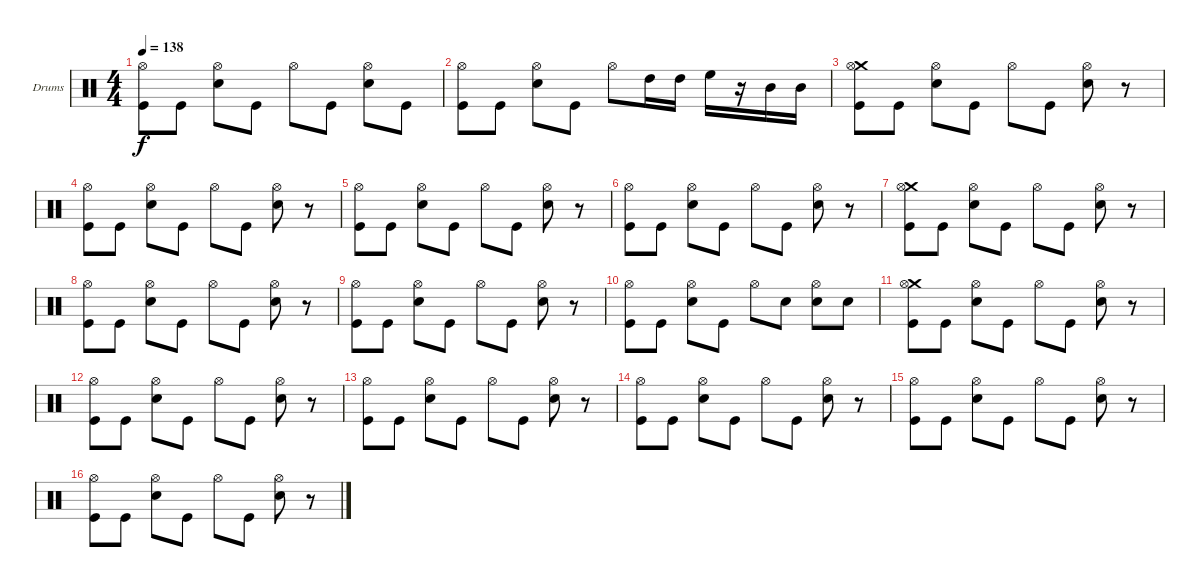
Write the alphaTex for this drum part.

\bracketExtendMode groupsimilarinstruments
\firstSystemTrackNameOrientation horizontal
\otherSystemsTrackNameOrientation horizontal
\track ("Drumkit" "Drums") {instrument percussion}
\staff {score}
\articulation defaults
\ts (4 4)
\tempo 138
\clef neutral
\ks c
("Hi-Hat (open)" "Kick (hit)").8{dy f} "Kick (hit)".8 ("Snare (hit) 2" "Hi-Hat (open)").8 "Kick (hit)".8 "Hi-Hat (open)".8 "Kick (hit)".8 ("Snare (hit) 2" "Hi-Hat (open)").8 "Kick (hit)".8 |
("Hi-Hat (open)" "Kick (hit)").8 "Kick (hit)".8 ("Snare (hit) 2" "Hi-Hat (open)").8 "Kick (hit)".8 "Hi-Hat (open)".8 "High Tom (hit)".16 "High Tom (hit)".16 "High Floor Tom (hit)".16 r.16 "Mid Tom (hit)".16 "Mid Tom (hit)".16 |
("Crash medium (hit)" "Hi-Hat (open)" "Kick (hit)").8 "Kick (hit)".8 ("Snare (hit) 2" "Hi-Hat (open)").8 "Kick (hit)".8 "Hi-Hat (open)".8 "Kick (hit)".8 ("Snare (hit) 2" "Hi-Hat (open)").8 r.8 |
("Hi-Hat (open)" "Kick (hit)").8 "Kick (hit)".8 ("Snare (hit) 2" "Hi-Hat (open)").8 "Kick (hit)".8 "Hi-Hat (open)".8 "Kick (hit)".8 ("Snare (hit) 2" "Hi-Hat (open)").8 r.8 |
("Hi-Hat (open)" "Kick (hit)").8 "Kick (hit)".8 ("Snare (hit) 2" "Hi-Hat (open)").8 "Kick (hit)".8 "Hi-Hat (open)".8 "Kick (hit)".8 ("Snare (hit) 2" "Hi-Hat (open)").8 r.8 |
("Hi-Hat (open)" "Kick (hit)").8 "Kick (hit)".8 ("Snare (hit) 2" "Hi-Hat (open)").8 "Kick (hit)".8 "Hi-Hat (open)".8 "Kick (hit)".8 ("Snare (hit) 2" "Hi-Hat (open)").8 r.8 |
("Crash medium (hit)" "Hi-Hat (open)" "Kick (hit)").8 "Kick (hit)".8 ("Snare (hit) 2" "Hi-Hat (open)").8 "Kick (hit)".8 "Hi-Hat (open)".8 "Kick (hit)".8 ("Snare (hit) 2" "Hi-Hat (open)").8 r.8 |
("Hi-Hat (open)" "Kick (hit)").8 "Kick (hit)".8 ("Snare (hit) 2" "Hi-Hat (open)").8 "Kick (hit)".8 "Hi-Hat (open)".8 "Kick (hit)".8 ("Snare (hit) 2" "Hi-Hat (open)").8 r.8 |
("Hi-Hat (open)" "Kick (hit)").8 "Kick (hit)".8 ("Snare (hit) 2" "Hi-Hat (open)").8 "Kick (hit)".8 "Hi-Hat (open)".8 "Kick (hit)".8 ("Snare (hit) 2" "Hi-Hat (open)").8 r.8 |
("Hi-Hat (open)" "Kick (hit)").8 "Kick (hit)".8 ("Snare (hit) 2" "Hi-Hat (open)").8 "Kick (hit)".8 "Hi-Hat (open)".8 "Snare (hit) 2".8 ("Snare (hit) 2" "Hi-Hat (open)").8 "Snare (hit) 2".8 |
("Crash medium (hit)" "Hi-Hat (open)" "Kick (hit)").8 "Kick (hit)".8 ("Snare (hit) 2" "Hi-Hat (open)").8 "Kick (hit)".8 "Hi-Hat (open)".8 "Kick (hit)".8 ("Snare (hit) 2" "Hi-Hat (open)").8 r.8 |
("Hi-Hat (open)" "Kick (hit)").8 "Kick (hit)".8 ("Snare (hit) 2" "Hi-Hat (open)").8 "Kick (hit)".8 "Hi-Hat (open)".8 "Kick (hit)".8 ("Snare (hit) 2" "Hi-Hat (open)").8 r.8 |
("Hi-Hat (open)" "Kick (hit)").8 "Kick (hit)".8 ("Snare (hit) 2" "Hi-Hat (open)").8 "Kick (hit)".8 "Hi-Hat (open)".8 "Kick (hit)".8 ("Snare (hit) 2" "Hi-Hat (open)").8 r.8 |
("Hi-Hat (open)" "Kick (hit)").8 "Kick (hit)".8 ("Snare (hit) 2" "Hi-Hat (open)").8 "Kick (hit)".8 "Hi-Hat (open)".8 "Kick (hit)".8 ("Snare (hit) 2" "Hi-Hat (open)").8 r.8 |
("Hi-Hat (open)" "Kick (hit)").8 "Kick (hit)".8 ("Snare (hit) 2" "Hi-Hat (open)").8 "Kick (hit)".8 "Hi-Hat (open)".8 "Kick (hit)".8 ("Snare (hit) 2" "Hi-Hat (open)").8 r.8 |
("Hi-Hat (open)" "Kick (hit)").8 "Kick (hit)".8 ("Snare (hit) 2" "Hi-Hat (open)").8 "Kick (hit)".8 "Hi-Hat (open)".8 "Kick (hit)".8 ("Snare (hit) 2" "Hi-Hat (open)").8 r.8
